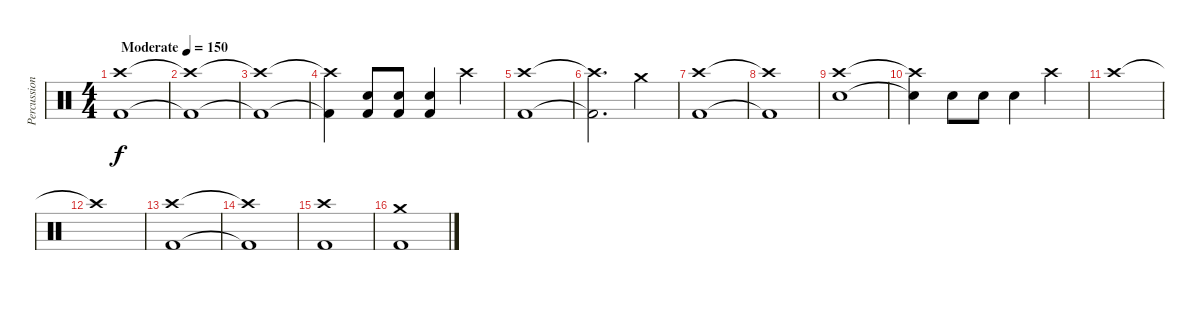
\track ("Percussion" "Percussion") {instrument percussion}
\staff {score}
\articulation defaults
\ts (4 4)
\tempo (150 "Moderate")
\clef neutral
\ks c
("Crash high (hit)" "Kick (hit) 2").1{dy f} |
("Crash high (hit)"{t} "Kick (hit) 2"{t}).1 |
("Crash high (hit)"{t} "Kick (hit) 2"{t}).1 |
("Crash high (hit)"{t} "Kick (hit) 2"{t}).4 ("Snare (hit) 2" "Kick (hit) 2").8 ("Snare (hit) 2" "Kick (hit) 2").8 ("Snare (hit) 2" "Kick (hit) 2").4 "Crash high (hit)".4 |
("Crash high (hit)" "Kick (hit) 2").1 |
("Crash high (hit)"{t} "Kick (hit) 2"{t}).2{d} "Crash medium (hit)".4 |
("Crash high (hit)" "Kick (hit) 2").1 |
("Crash high (hit)"{t} "Kick (hit) 2"{t}).1 |
("Crash high (hit)" "Snare (hit) 2").1 |
("Crash high (hit)"{t} "Snare (hit) 2"{t}).4 "Snare (hit) 2".8 "Snare (hit) 2".8 "Snare (hit) 2".4 "Crash high (hit)".4 |
"Crash high (hit)".1 |
"Crash high (hit)"{t}.1 |
("Crash high (hit)" "Kick (hit) 2").1 |
("Crash high (hit)"{t} "Kick (hit) 2"{t}).1 |
("Crash high (hit)" "Kick (hit) 2").1 |
("Crash medium (hit)" "Kick (hit) 2").1
